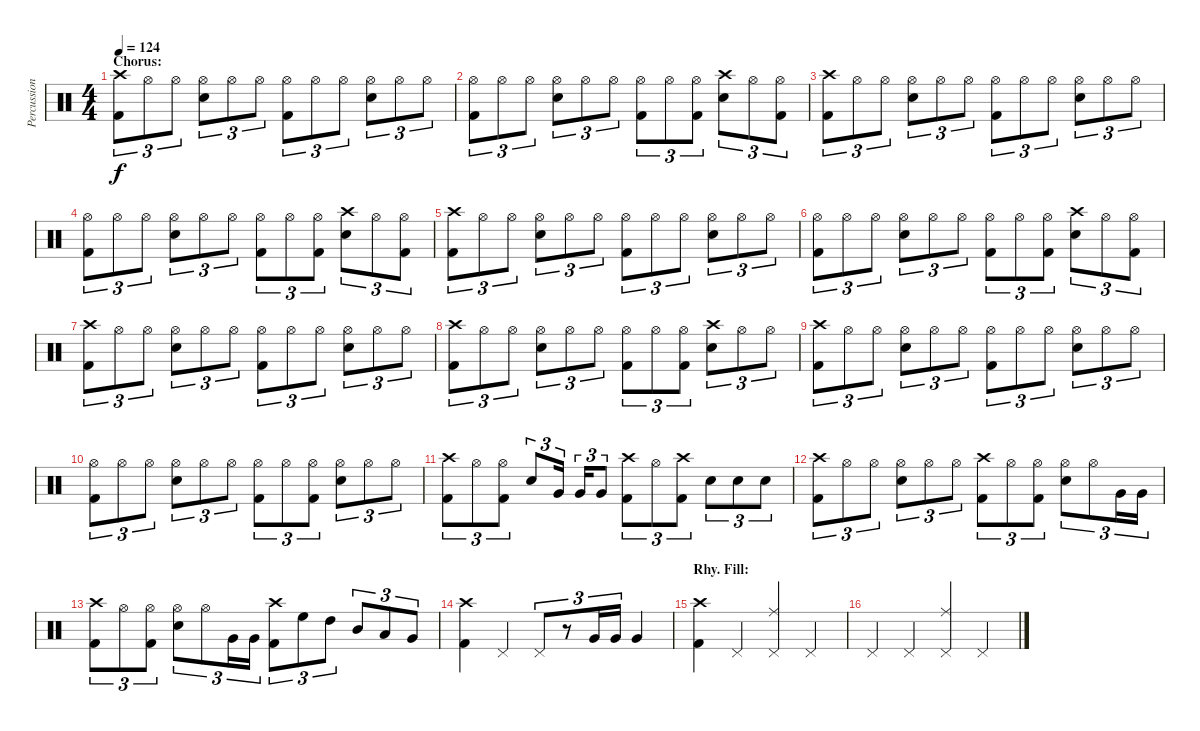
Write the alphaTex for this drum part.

\track ("Percussion" "Percussion") {instrument percussion}
\staff {score}
\articulation defaults
\ts (4 4)
\section ("" "Chorus:")
\tempo 124
\clef neutral
\ks c
("Crash high (hit)" "Kick (hit) 2").8{tu (3 2) dy f} "Hi-Hat (open)".8{tu (3 2)} "Hi-Hat (open)".8{tu (3 2)} ("Hi-Hat (open)" "Snare (hit) 2").8{tu (3 2)} "Hi-Hat (open)".8{tu (3 2)} "Hi-Hat (open)".8{tu (3 2)} ("Hi-Hat (open)" "Kick (hit) 2").8{tu (3 2)} "Hi-Hat (open)".8{tu (3 2)} "Hi-Hat (open)".8{tu (3 2)} ("Hi-Hat (open)" "Snare (hit) 2").8{tu (3 2)} "Hi-Hat (open)".8{tu (3 2)} "Hi-Hat (open)".8{tu (3 2)} |
("Hi-Hat (open)" "Kick (hit) 2").8{tu (3 2)} "Hi-Hat (open)".8{tu (3 2)} "Hi-Hat (open)".8{tu (3 2)} ("Hi-Hat (open)" "Snare (hit) 2").8{tu (3 2)} "Hi-Hat (open)".8{tu (3 2)} "Hi-Hat (open)".8{tu (3 2)} ("Hi-Hat (open)" "Kick (hit) 2").8{tu (3 2)} "Hi-Hat (open)".8{tu (3 2)} ("Hi-Hat (open)" "Kick (hit) 2").8{tu (3 2)} ("Crash high (hit)" "Snare (hit) 2").8{tu (3 2)} "Hi-Hat (open)".8{tu (3 2)} ("Hi-Hat (open)" "Kick (hit) 2").8{tu (3 2)} |
("Crash high (hit)" "Kick (hit) 2").8{tu (3 2)} "Hi-Hat (open)".8{tu (3 2)} "Hi-Hat (open)".8{tu (3 2)} ("Hi-Hat (open)" "Snare (hit) 2").8{tu (3 2)} "Hi-Hat (open)".8{tu (3 2)} "Hi-Hat (open)".8{tu (3 2)} ("Hi-Hat (open)" "Kick (hit) 2").8{tu (3 2)} "Hi-Hat (open)".8{tu (3 2)} "Hi-Hat (open)".8{tu (3 2)} ("Hi-Hat (open)" "Snare (hit) 2").8{tu (3 2)} "Hi-Hat (open)".8{tu (3 2)} "Hi-Hat (open)".8{tu (3 2)} |
("Hi-Hat (open)" "Kick (hit) 2").8{tu (3 2)} "Hi-Hat (open)".8{tu (3 2)} "Hi-Hat (open)".8{tu (3 2)} ("Hi-Hat (open)" "Snare (hit) 2").8{tu (3 2)} "Hi-Hat (open)".8{tu (3 2)} "Hi-Hat (open)".8{tu (3 2)} ("Hi-Hat (open)" "Kick (hit) 2").8{tu (3 2)} "Hi-Hat (open)".8{tu (3 2)} ("Hi-Hat (open)" "Kick (hit) 2").8{tu (3 2)} ("Crash high (hit)" "Snare (hit) 2").8{tu (3 2)} "Hi-Hat (open)".8{tu (3 2)} ("Hi-Hat (open)" "Kick (hit) 2").8{tu (3 2)} |
("Crash high (hit)" "Kick (hit) 2").8{tu (3 2)} "Hi-Hat (open)".8{tu (3 2)} "Hi-Hat (open)".8{tu (3 2)} ("Hi-Hat (open)" "Snare (hit) 2").8{tu (3 2)} "Hi-Hat (open)".8{tu (3 2)} "Hi-Hat (open)".8{tu (3 2)} ("Hi-Hat (open)" "Kick (hit) 2").8{tu (3 2)} "Hi-Hat (open)".8{tu (3 2)} "Hi-Hat (open)".8{tu (3 2)} ("Hi-Hat (open)" "Snare (hit) 2").8{tu (3 2)} "Hi-Hat (open)".8{tu (3 2)} "Hi-Hat (open)".8{tu (3 2)} |
("Hi-Hat (open)" "Kick (hit) 2").8{tu (3 2)} "Hi-Hat (open)".8{tu (3 2)} "Hi-Hat (open)".8{tu (3 2)} ("Hi-Hat (open)" "Snare (hit) 2").8{tu (3 2)} "Hi-Hat (open)".8{tu (3 2)} "Hi-Hat (open)".8{tu (3 2)} ("Hi-Hat (open)" "Kick (hit) 2").8{tu (3 2)} "Hi-Hat (open)".8{tu (3 2)} ("Hi-Hat (open)" "Kick (hit) 2").8{tu (3 2)} ("Crash high (hit)" "Snare (hit) 2").8{tu (3 2)} "Hi-Hat (open)".8{tu (3 2)} ("Hi-Hat (open)" "Kick (hit) 2").8{tu (3 2)} |
("Crash high (hit)" "Kick (hit) 2").8{tu (3 2)} "Hi-Hat (open)".8{tu (3 2)} "Hi-Hat (open)".8{tu (3 2)} ("Hi-Hat (open)" "Snare (hit) 2").8{tu (3 2)} "Hi-Hat (open)".8{tu (3 2)} "Hi-Hat (open)".8{tu (3 2)} ("Hi-Hat (open)" "Kick (hit) 2").8{tu (3 2)} "Hi-Hat (open)".8{tu (3 2)} "Hi-Hat (open)".8{tu (3 2)} ("Hi-Hat (open)" "Snare (hit) 2").8{tu (3 2)} "Hi-Hat (open)".8{tu (3 2)} "Hi-Hat (open)".8{tu (3 2)} |
("Crash high (hit)" "Kick (hit) 2").8{tu (3 2)} "Hi-Hat (open)".8{tu (3 2)} "Hi-Hat (open)".8{tu (3 2)} ("Hi-Hat (open)" "Snare (hit) 2").8{tu (3 2)} "Hi-Hat (open)".8{tu (3 2)} "Hi-Hat (open)".8{tu (3 2)} ("Hi-Hat (open)" "Kick (hit) 2").8{tu (3 2)} "Hi-Hat (open)".8{tu (3 2)} ("Hi-Hat (open)" "Kick (hit) 2").8{tu (3 2)} ("Crash high (hit)" "Snare (hit) 2").8{tu (3 2)} "Hi-Hat (open)".8{tu (3 2)} "Hi-Hat (open)".8{tu (3 2)} |
("Crash high (hit)" "Kick (hit) 2").8{tu (3 2)} "Hi-Hat (open)".8{tu (3 2)} "Hi-Hat (open)".8{tu (3 2)} ("Hi-Hat (open)" "Snare (hit) 2").8{tu (3 2)} "Hi-Hat (open)".8{tu (3 2)} "Hi-Hat (open)".8{tu (3 2)} ("Hi-Hat (open)" "Kick (hit) 2").8{tu (3 2)} "Hi-Hat (open)".8{tu (3 2)} "Hi-Hat (open)".8{tu (3 2)} ("Hi-Hat (open)" "Snare (hit) 2").8{tu (3 2)} "Hi-Hat (open)".8{tu (3 2)} "Hi-Hat (open)".8{tu (3 2)} |
("Hi-Hat (open)" "Kick (hit) 2").8{tu (3 2)} "Hi-Hat (open)".8{tu (3 2)} "Hi-Hat (open)".8{tu (3 2)} ("Hi-Hat (open)" "Snare (hit) 2").8{tu (3 2)} "Hi-Hat (open)".8{tu (3 2)} "Hi-Hat (open)".8{tu (3 2)} ("Hi-Hat (open)" "Kick (hit) 2").8{tu (3 2)} "Hi-Hat (open)".8{tu (3 2)} ("Hi-Hat (open)" "Kick (hit) 2").8{tu (3 2)} ("Hi-Hat (open)" "Snare (hit) 2").8{tu (3 2)} "Hi-Hat (open)".8{tu (3 2)} "Hi-Hat (open)".8{tu (3 2)} |
("Crash high (hit)" "Kick (hit) 2").8{tu (3 2)} "Hi-Hat (open)".8{tu (3 2)} ("Hi-Hat (open)" "Kick (hit) 2").8{tu (3 2)} "Snare (hit) 2".8{tu (3 2)} "Very Low Tom (hit)".16{tu (3 2)} "Very Low Tom (hit)".16{tu (3 2)} "Very Low Tom (hit)".8{tu (3 2)} ("Crash high (hit)" "Kick (hit) 2").8{tu (3 2)} "Hi-Hat (open)".8{tu (3 2)} ("Crash high (hit)" "Kick (hit) 2").8{tu (3 2)} "Snare (hit) 2".8{tu (3 2)} "Snare (hit) 2".8{tu (3 2)} "Snare (hit) 2".8{tu (3 2)} |
("Crash high (hit)" "Kick (hit) 2").8{tu (3 2)} "Hi-Hat (open)".8{tu (3 2)} "Hi-Hat (open)".8{tu (3 2)} ("Hi-Hat (open)" "Snare (hit) 2").8{tu (3 2)} "Hi-Hat (open)".8{tu (3 2)} "Hi-Hat (open)".8{tu (3 2)} ("Crash high (hit)" "Kick (hit) 2").8{tu (3 2)} "Hi-Hat (open)".8{tu (3 2)} ("Hi-Hat (open)" "Kick (hit) 2").8{tu (3 2)} ("Hi-Hat (open)" "Snare (hit) 2").8{tu (3 2)} "Hi-Hat (open)".8{tu (3 2)} "Very Low Tom (hit)".16{tu (3 2)} "Very Low Tom (hit)".16{tu (3 2)} |
("Crash high (hit)" "Kick (hit) 2").8{tu (3 2)} "Hi-Hat (open)".8{tu (3 2)} ("Hi-Hat (open)" "Kick (hit) 2").8{tu (3 2)} ("Hi-Hat (open)" "Snare (hit) 2").8{tu (3 2)} "Hi-Hat (open)".8{tu (3 2)} "Very Low Tom (hit)".16{tu (3 2)} "Very Low Tom (hit)".16{tu (3 2)} ("Crash high (hit)" "Kick (hit) 2").8{tu (3 2)} "High Floor Tom (hit)".8{tu (3 2)} "High Tom (hit)".8{tu (3 2)} "Mid Tom (hit)".8{tu (3 2)} "Low Tom (hit)".8{tu (3 2)} "Very Low Tom (hit)".8{tu (3 2)} |
("Crash high (hit)" "Kick (hit) 2").4 "Pedal Hi-Hat (hit)".4 "Pedal Hi-Hat (hit)".8{tu (3 2)} r.8{tu (3 2)} "Very Low Tom (hit)".16{tu (3 2)} "Very Low Tom (hit)".16{tu (3 2)} "Very Low Tom (hit)".4 |
\section ("" "Rhy. Fill:")
("Crash high (hit)" "Kick (hit) 2").4 "Pedal Hi-Hat (hit)".4 ("Ride (middle)" "Pedal Hi-Hat (hit)").4 "Pedal Hi-Hat (hit)".4 |
"Pedal Hi-Hat (hit)".4 "Pedal Hi-Hat (hit)".4 ("Ride (middle)" "Pedal Hi-Hat (hit)").4 "Pedal Hi-Hat (hit)".4
